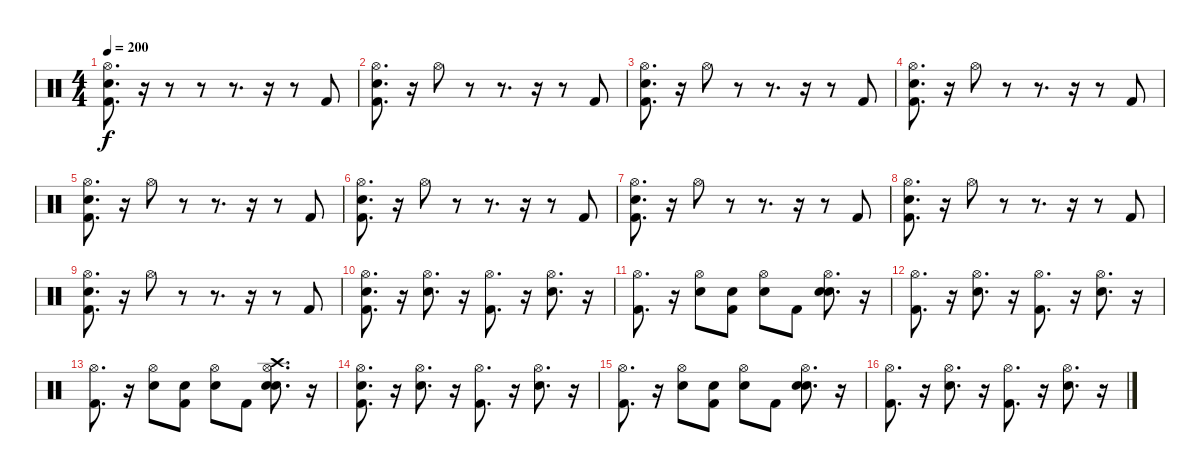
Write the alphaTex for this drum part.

\track "" {instrument percussion}
\staff {score}
\articulation defaults
\ts (4 4)
\tempo 200
\clef neutral
\ks c
("Snare (hit)" "Kick (hit) 2" "Hi-Hat (open)").8{d dy f} r.16 r.8 r.8 r.8{d} r.16 r.8 "Kick (hit) 2".8 |
("Snare (hit)" "Kick (hit) 2" "Hi-Hat (open)").8{d} r.16 "Hi-Hat (open)".8 r.8 r.8{d} r.16 r.8 "Kick (hit) 2".8 |
("Snare (hit)" "Kick (hit) 2" "Hi-Hat (open)").8{d} r.16 "Hi-Hat (open)".8 r.8 r.8{d} r.16 r.8 "Kick (hit) 2".8 |
("Snare (hit)" "Kick (hit) 2" "Hi-Hat (open)").8{d} r.16 "Hi-Hat (open)".8 r.8 r.8{d} r.16 r.8 "Kick (hit) 2".8 |
("Snare (hit)" "Kick (hit) 2" "Hi-Hat (open)").8{d} r.16 "Hi-Hat (open)".8 r.8 r.8{d} r.16 r.8 "Kick (hit) 2".8 |
("Snare (hit)" "Kick (hit) 2" "Hi-Hat (open)").8{d} r.16 "Hi-Hat (open)".8 r.8 r.8{d} r.16 r.8 "Kick (hit) 2".8 |
("Snare (hit)" "Kick (hit) 2" "Hi-Hat (open)").8{d} r.16 "Hi-Hat (open)".8 r.8 r.8{d} r.16 r.8 "Kick (hit) 2".8 |
("Snare (hit)" "Kick (hit) 2" "Hi-Hat (open)").8{d} r.16 "Hi-Hat (open)".8 r.8 r.8{d} r.16 r.8 "Kick (hit) 2".8 |
("Snare (hit)" "Kick (hit) 2" "Hi-Hat (open)").8{d} r.16 "Hi-Hat (open)".8 r.8 r.8{d} r.16 r.8 "Kick (hit) 2".8 |
("Snare (hit)" "Kick (hit) 2" "Hi-Hat (open)").8{d} r.16 ("Snare (hit) 2" "Hi-Hat (open)").8{d} r.16 ("Kick (hit) 2" "Hi-Hat (open)").8{d} r.16 ("Snare (hit) 2" "Hi-Hat (open)").8{d} r.16 |
("Kick (hit) 2" "Hi-Hat (open)").8{d} r.16 ("Snare (hit) 2" "Hi-Hat (open)").8 ("Snare (hit)" "Kick (hit) 2").8 ("Snare (hit)" "Hi-Hat (open)").8 "Kick (hit) 2".8 ("Snare (hit)" "Snare (hit) 2" "Hi-Hat (open)").8{d} r.16 |
("Kick (hit) 2" "Hi-Hat (open)").8{d} r.16 ("Snare (hit) 2" "Hi-Hat (open)").8{d} r.16 ("Kick (hit) 2" "Hi-Hat (open)").8{d} r.16 ("Snare (hit) 2" "Hi-Hat (open)").8{d} r.16 |
("Kick (hit) 2" "Hi-Hat (open)").8{d} r.16 ("Snare (hit) 2" "Hi-Hat (open)").8 ("Snare (hit)" "Kick (hit) 2").8 ("Snare (hit)" "Hi-Hat (open)").8 "Kick (hit) 2".8 ("Snare (hit)" "Snare (hit) 2" "Hi-Hat (open)" "Crash high (hit)").8{d} r.16 |
("Snare (hit)" "Kick (hit) 2" "Hi-Hat (open)").8{d} r.16 ("Snare (hit) 2" "Hi-Hat (open)").8{d} r.16 ("Kick (hit) 2" "Hi-Hat (open)").8{d} r.16 ("Snare (hit) 2" "Hi-Hat (open)").8{d} r.16 |
("Kick (hit) 2" "Hi-Hat (open)").8{d} r.16 ("Snare (hit) 2" "Hi-Hat (open)").8 ("Snare (hit)" "Kick (hit) 2").8 ("Snare (hit)" "Hi-Hat (open)").8 "Kick (hit) 2".8 ("Snare (hit)" "Snare (hit) 2" "Hi-Hat (open)").8{d} r.16 |
("Kick (hit) 2" "Hi-Hat (open)").8{d} r.16 ("Snare (hit) 2" "Hi-Hat (open)").8{d} r.16 ("Kick (hit) 2" "Hi-Hat (open)").8{d} r.16 ("Snare (hit) 2" "Hi-Hat (open)").8{d} r.16
